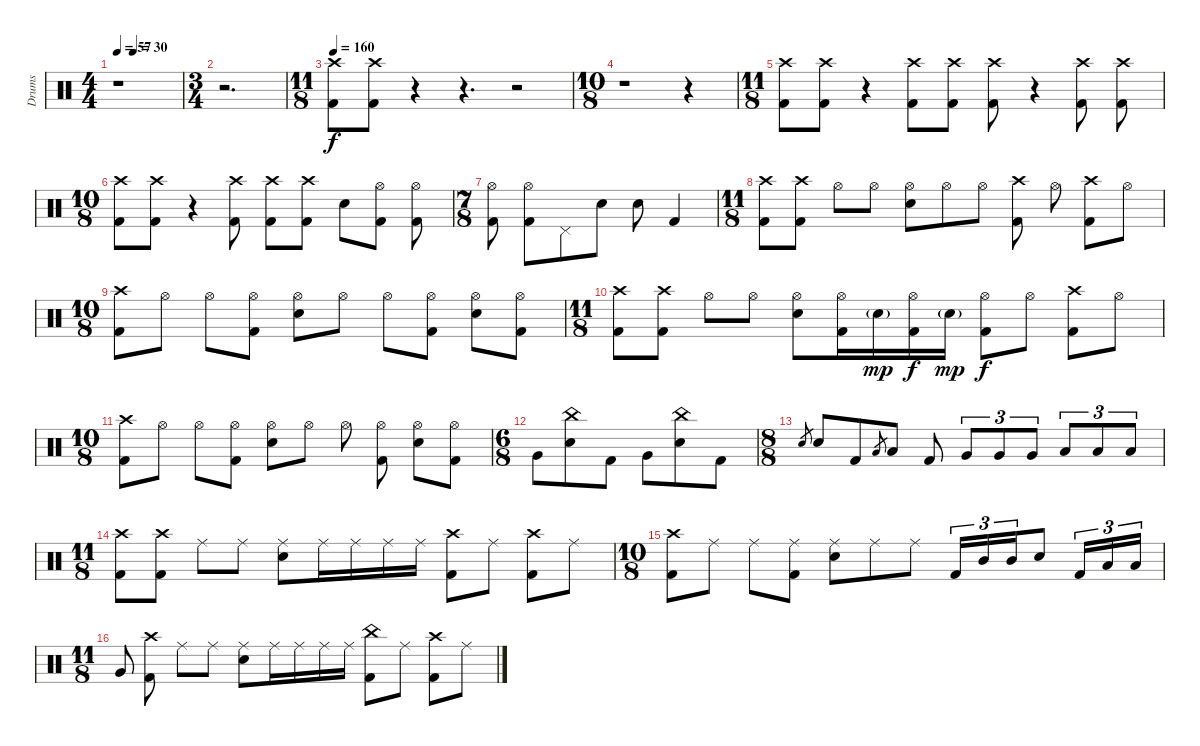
\track ("Drums" "Drums") {instrument percussion}
\staff {score}
\articulation defaults
\ts (4 4)
\tempo 57
\tempo (30 0.25)
\clef neutral
\ks c
r.1{dy f} |
\ts (3 4)
r.2{d} |
\ts (11 8)
\tempo 160
("Crash high (hit)" "Kick (hit) 2").8{volume 13} ("Crash high (hit)" "Kick (hit) 2").8 r.4{volume 0} r.4{d} r.2 |
\ts (10 8)
r.1 r.4 |
\ts (11 8)
("Crash high (hit)" "Kick (hit) 2").8{volume 13} ("Crash high (hit)" "Kick (hit) 2").8 r.4{volume 0} ("Crash high (hit)" "Kick (hit) 2").8{volume 13} ("Crash high (hit)" "Kick (hit) 2").8 ("Crash high (hit)" "Kick (hit) 2").8 r.4{volume 0} ("Crash high (hit)" "Kick (hit) 2").8{volume 13} ("Crash high (hit)" "Kick (hit) 2").8 |
\ts (10 8)
("Crash high (hit)" "Kick (hit) 2").8 ("Crash high (hit)" "Kick (hit) 2").8 r.4{volume 0} ("Crash high (hit)" "Kick (hit) 2").8{volume 13 beam split} ("Crash high (hit)" "Kick (hit) 2").8{beam merge} ("Crash high (hit)" "Kick (hit) 2").8{beam split} "Electric Snare (hit)".8{beam merge} ("Hi-Hat (open)" "Kick (hit) 2").8{beam split} ("Hi-Hat (open)" "Kick (hit) 2").8 |
\ts (7 8)
("Hi-Hat (open)" "Kick (hit) 2").8{beam split} ("Hi-Hat (open)" "Kick (hit) 2").8 "Pedal Hi-Hat (hit)".8 "Electric Snare (hit)".8 "Electric Snare (hit)".8 "Kick (hit) 2".4 |
\ts (11 8)
("Crash high (hit)" "Kick (hit) 2").8 ("Crash high (hit)" "Kick (hit) 2").8{beam split} "Hi-Hat (open)".8{beam merge} "Hi-Hat (open)".8{beam split} ("Hi-Hat (open)" "Electric Snare (hit)").8 "Hi-Hat (open)".8{beam merge} "Hi-Hat (open)".8{beam split} ("Crash high (hit)" "Kick (hit) 2").8 "Hi-Hat (open)".8{beam split} ("Crash high (hit)" "Kick (hit) 2").8{beam merge} "Hi-Hat (open)".8 |
\ts (10 8)
("Crash high (hit)" "Kick (hit) 2").8 "Hi-Hat (open)".8{beam split} "Hi-Hat (open)".8{beam merge} ("Hi-Hat (open)" "Kick (hit) 2").8{beam split} ("Hi-Hat (open)" "Electric Snare (hit)").8 "Hi-Hat (open)".8{beam split} "Hi-Hat (open)".8{beam merge} ("Hi-Hat (open)" "Kick (hit) 2").8{beam split} ("Hi-Hat (open)" "Electric Snare (hit)").8{beam merge} ("Hi-Hat (open)" "Kick (hit) 2").8 |
\ts (11 8)
("Crash high (hit)" "Kick (hit) 2").8 ("Crash high (hit)" "Kick (hit) 2").8{beam split} "Hi-Hat (open)".8{beam merge} "Hi-Hat (open)".8{beam split} ("Hi-Hat (open)" "Electric Snare (hit)").8{beam merge} ("Hi-Hat (open)" "Kick (hit) 2").16 "Electric Snare (hit)"{g}.16{dy mp beam merge} ("Hi-Hat (open)" "Kick (hit) 2").16{dy f} "Electric Snare (hit)"{g}.16{dy mp beam split} ("Hi-Hat (open)" "Kick (hit) 2").8{dy f beam merge} "Hi-Hat (open)".8{beam split} ("Crash high (hit)" "Kick (hit) 2").8{beam merge} "Hi-Hat (open)".8 |
\ts (10 8)
("Crash high (hit)" "Kick (hit) 2").8 "Hi-Hat (open)".8{beam split} "Hi-Hat (open)".8{beam merge} ("Hi-Hat (open)" "Kick (hit) 2").8{beam split} ("Hi-Hat (open)" "Electric Snare (hit)").8 "Hi-Hat (open)".8{beam split} "Hi-Hat (open)".8 ("Hi-Hat (open)" "Kick (hit) 2").8{beam split} ("Hi-Hat (open)" "Electric Snare (hit)").8{beam merge} ("Hi-Hat (open)" "Kick (hit) 2").8 |
\ts (6 8)
"Very Low Tom (hit)".8 ("China (hit)" "Electric Snare (hit)").8 "Kick (hit) 2".8{beam split} "Very Low Tom (hit)".8 ("China (hit)" "Electric Snare (hit)").8 "Kick (hit) 2".8 |
\ts (8 8)
"Electric Snare (hit)".8{gr} "Electric Snare (hit)".8 "Kick (hit) 2".8 "Low Tom (hit)".8{gr} "Low Tom (hit)".8 "Kick (hit) 2".8 "Very Low Tom (hit)".8{tu (3 2)} "Very Low Tom (hit)".8{tu (3 2) beam merge} "Very Low Tom (hit)".8{tu (3 2)} "Low Floor Tom (hit)".8{tu (3 2)} "Low Floor Tom (hit)".8{tu (3 2) beam merge} "Low Floor Tom (hit)".8{tu (3 2)} |
\ts (11 8)
("Crash high (hit)" "Kick (hit) 2").8 ("Crash high (hit)" "Kick (hit) 2").8{beam split} "Ride (middle)".8{beam merge} "Ride (middle)".8{beam split} ("Ride (middle)" "Electric Snare (hit)").8{beam merge} "Ride (middle)".16 "Ride (middle)".16{beam merge} "Ride (middle)".16{beam merge} "Ride (middle)".16{beam split} ("Crash high (hit)" "Kick (hit) 2").8{beam merge} "Ride (middle)".8{beam split} ("Crash high (hit)" "Kick (hit) 2").8{beam merge} "Ride (middle)".8 |
\ts (10 8)
("Crash high (hit)" "Kick (hit) 2").8 "Ride (middle)".8{beam split} "Ride (middle)".8{beam merge} ("Ride (middle)" "Kick (hit) 2").8{beam split} ("Ride (middle)" "Electric Snare (hit)").8 "Ride (middle)".8{beam merge} "Ride (middle)".8{beam split} "Kick (hit) 2".16{tu (3 2)} "Mid Tom (hit)".16{tu (3 2) beam merge} "Mid Tom (hit)".16{tu (3 2) beam merge} "Electric Snare (hit)".8{beam split} "Kick (hit) 2".16{tu (3 2)} "Low Tom (hit)".16{tu (3 2) beam merge} "Low Tom (hit)".16{tu (3 2)} |
\ts (11 8)
"Very Low Tom (hit)".8{beam split} ("Crash high (hit)" "Kick (hit) 2").8{beam split} "Ride (middle)".8{beam merge} "Ride (middle)".8{beam split} ("Ride (middle)" "Electric Snare (hit)").8{beam merge} "Ride (middle)".16 "Ride (middle)".16{beam merge} "Ride (middle)".16{beam merge} "Ride (middle)".16{beam split} ("China (hit)" "Kick (hit) 2").8{beam merge} "Ride (middle)".8{beam split} ("Crash high (hit)" "Kick (hit) 2").8{beam merge} "Ride (middle)".8
